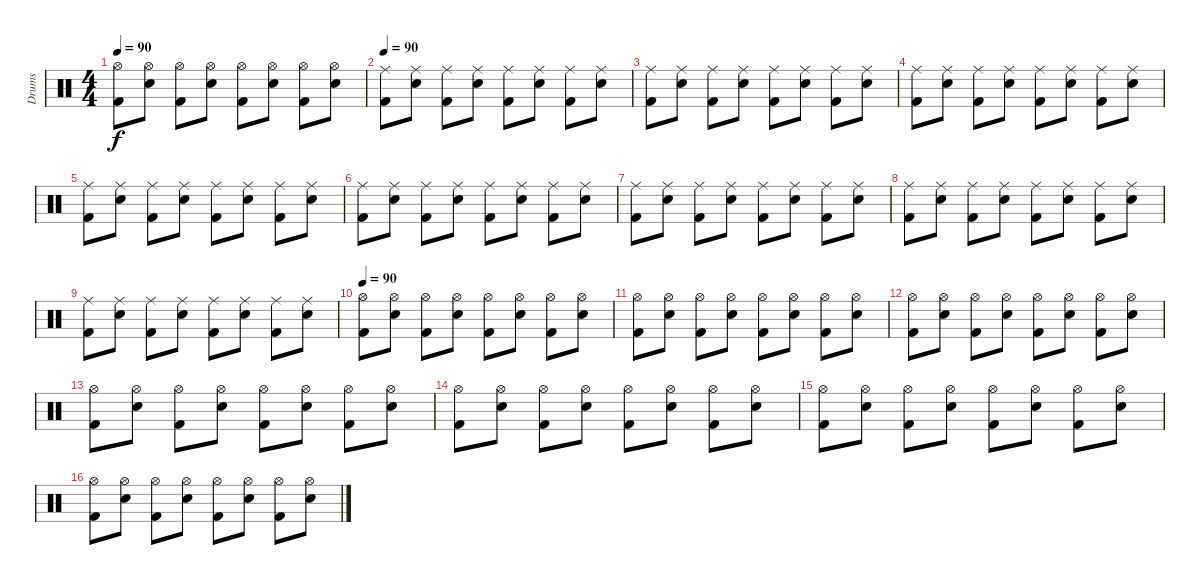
\track ("Drums" "Drums") {instrument percussion}
\staff {score}
\articulation defaults
\ts (4 4)
\tempo 90
\clef neutral
\ks c
("Hi-Hat (open)" "Kick (hit) 2").8{dy f} ("Hi-Hat (open)" "Electric Snare (hit)").8 ("Hi-Hat (open)" "Kick (hit) 2").8 ("Hi-Hat (open)" "Electric Snare (hit)").8 ("Hi-Hat (open)" "Kick (hit) 2").8 ("Hi-Hat (open)" "Electric Snare (hit)").8 ("Hi-Hat (open)" "Kick (hit) 2").8 ("Hi-Hat (open)" "Electric Snare (hit)").8 |
\tempo 90
("Ride (middle)" "Kick (hit) 2").8 ("Ride (middle)" "Electric Snare (hit)").8 ("Ride (middle)" "Kick (hit) 2").8 ("Ride (middle)" "Electric Snare (hit)").8 ("Ride (middle)" "Kick (hit) 2").8 ("Ride (middle)" "Electric Snare (hit)").8 ("Ride (middle)" "Kick (hit) 2").8 ("Ride (middle)" "Electric Snare (hit)").8 |
("Ride (middle)" "Kick (hit) 2").8 ("Ride (middle)" "Electric Snare (hit)").8 ("Ride (middle)" "Kick (hit) 2").8 ("Ride (middle)" "Electric Snare (hit)").8 ("Ride (middle)" "Kick (hit) 2").8 ("Ride (middle)" "Electric Snare (hit)").8 ("Ride (middle)" "Kick (hit) 2").8 ("Ride (middle)" "Electric Snare (hit)").8 |
("Ride (middle)" "Kick (hit) 2").8 ("Ride (middle)" "Electric Snare (hit)").8 ("Ride (middle)" "Kick (hit) 2").8 ("Ride (middle)" "Electric Snare (hit)").8 ("Ride (middle)" "Kick (hit) 2").8 ("Ride (middle)" "Electric Snare (hit)").8 ("Ride (middle)" "Kick (hit) 2").8 ("Ride (middle)" "Electric Snare (hit)").8 |
("Ride (middle)" "Kick (hit) 2").8 ("Ride (middle)" "Electric Snare (hit)").8 ("Ride (middle)" "Kick (hit) 2").8 ("Ride (middle)" "Electric Snare (hit)").8 ("Ride (middle)" "Kick (hit) 2").8 ("Ride (middle)" "Electric Snare (hit)").8 ("Ride (middle)" "Kick (hit) 2").8 ("Ride (middle)" "Electric Snare (hit)").8 |
("Ride (middle)" "Kick (hit) 2").8 ("Ride (middle)" "Electric Snare (hit)").8 ("Ride (middle)" "Kick (hit) 2").8 ("Ride (middle)" "Electric Snare (hit)").8 ("Ride (middle)" "Kick (hit) 2").8 ("Ride (middle)" "Electric Snare (hit)").8 ("Ride (middle)" "Kick (hit) 2").8 ("Ride (middle)" "Electric Snare (hit)").8 |
("Ride (middle)" "Kick (hit) 2").8 ("Ride (middle)" "Electric Snare (hit)").8 ("Ride (middle)" "Kick (hit) 2").8 ("Ride (middle)" "Electric Snare (hit)").8 ("Ride (middle)" "Kick (hit) 2").8 ("Ride (middle)" "Electric Snare (hit)").8 ("Ride (middle)" "Kick (hit) 2").8 ("Ride (middle)" "Electric Snare (hit)").8 |
("Ride (middle)" "Kick (hit) 2").8 ("Ride (middle)" "Electric Snare (hit)").8 ("Ride (middle)" "Kick (hit) 2").8 ("Ride (middle)" "Electric Snare (hit)").8 ("Ride (middle)" "Kick (hit) 2").8 ("Ride (middle)" "Electric Snare (hit)").8 ("Ride (middle)" "Kick (hit) 2").8 ("Ride (middle)" "Electric Snare (hit)").8 |
("Ride (middle)" "Kick (hit) 2").8 ("Ride (middle)" "Electric Snare (hit)").8 ("Ride (middle)" "Kick (hit) 2").8 ("Ride (middle)" "Electric Snare (hit)").8 ("Ride (middle)" "Kick (hit) 2").8 ("Ride (middle)" "Electric Snare (hit)").8 ("Ride (middle)" "Kick (hit) 2").8 ("Ride (middle)" "Electric Snare (hit)").8 |
\tempo 90
("Hi-Hat (open)" "Kick (hit) 2").8 ("Hi-Hat (open)" "Electric Snare (hit)").8 ("Hi-Hat (open)" "Kick (hit) 2").8 ("Hi-Hat (open)" "Electric Snare (hit)").8 ("Hi-Hat (open)" "Kick (hit) 2").8 ("Hi-Hat (open)" "Electric Snare (hit)").8 ("Hi-Hat (open)" "Kick (hit) 2").8 ("Hi-Hat (open)" "Electric Snare (hit)").8 |
("Hi-Hat (open)" "Kick (hit) 2").8 ("Hi-Hat (open)" "Electric Snare (hit)").8 ("Hi-Hat (open)" "Kick (hit) 2").8 ("Hi-Hat (open)" "Electric Snare (hit)").8 ("Hi-Hat (open)" "Kick (hit) 2").8 ("Hi-Hat (open)" "Electric Snare (hit)").8 ("Hi-Hat (open)" "Kick (hit) 2").8 ("Hi-Hat (open)" "Electric Snare (hit)").8 |
("Hi-Hat (open)" "Kick (hit) 2").8 ("Hi-Hat (open)" "Electric Snare (hit)").8 ("Hi-Hat (open)" "Kick (hit) 2").8 ("Hi-Hat (open)" "Electric Snare (hit)").8 ("Hi-Hat (open)" "Kick (hit) 2").8 ("Hi-Hat (open)" "Electric Snare (hit)").8 ("Hi-Hat (open)" "Kick (hit) 2").8 ("Hi-Hat (open)" "Electric Snare (hit)").8 |
("Hi-Hat (open)" "Kick (hit) 2").8 ("Hi-Hat (open)" "Electric Snare (hit)").8 ("Hi-Hat (open)" "Kick (hit) 2").8 ("Hi-Hat (open)" "Electric Snare (hit)").8 ("Hi-Hat (open)" "Kick (hit) 2").8 ("Hi-Hat (open)" "Electric Snare (hit)").8 ("Hi-Hat (open)" "Kick (hit) 2").8 ("Hi-Hat (open)" "Electric Snare (hit)").8 |
("Hi-Hat (open)" "Kick (hit) 2").8 ("Hi-Hat (open)" "Electric Snare (hit)").8 ("Hi-Hat (open)" "Kick (hit) 2").8 ("Hi-Hat (open)" "Electric Snare (hit)").8 ("Hi-Hat (open)" "Kick (hit) 2").8 ("Hi-Hat (open)" "Electric Snare (hit)").8 ("Hi-Hat (open)" "Kick (hit) 2").8 ("Hi-Hat (open)" "Electric Snare (hit)").8 |
("Hi-Hat (open)" "Kick (hit) 2").8 ("Hi-Hat (open)" "Electric Snare (hit)").8 ("Hi-Hat (open)" "Kick (hit) 2").8 ("Hi-Hat (open)" "Electric Snare (hit)").8 ("Hi-Hat (open)" "Kick (hit) 2").8 ("Hi-Hat (open)" "Electric Snare (hit)").8 ("Hi-Hat (open)" "Kick (hit) 2").8 ("Hi-Hat (open)" "Electric Snare (hit)").8 |
("Hi-Hat (open)" "Kick (hit) 2").8 ("Hi-Hat (open)" "Electric Snare (hit)").8 ("Hi-Hat (open)" "Kick (hit) 2").8 ("Hi-Hat (open)" "Electric Snare (hit)").8 ("Hi-Hat (open)" "Kick (hit) 2").8 ("Hi-Hat (open)" "Electric Snare (hit)").8 ("Hi-Hat (open)" "Kick (hit) 2").8 ("Hi-Hat (open)" "Electric Snare (hit)").8
